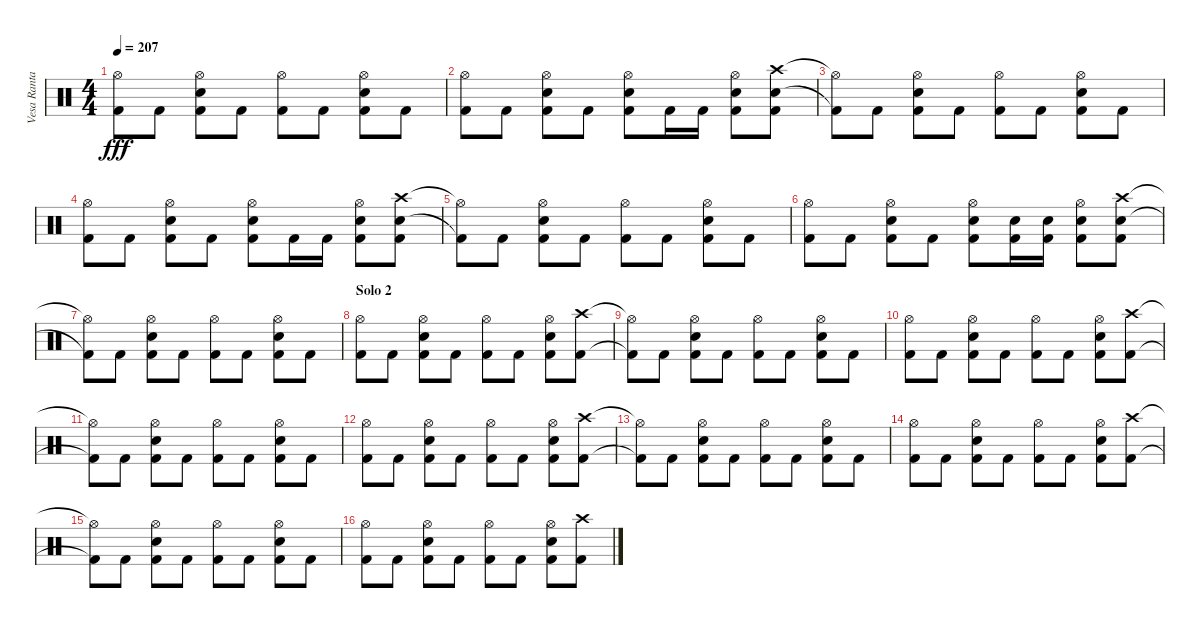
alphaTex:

\track ("Vesa Ranta" "Vesa Ranta") {instrument percussion}
\staff {score}
\articulation defaults
\ts (4 4)
\tempo 207
\clef neutral
\ks c
("Hi-Hat (open)"{t} "Kick (hit) 2"{t}).8{dy fff} "Kick (hit) 2".8 ("Hi-Hat (open)" "Snare (hit) 2" "Kick (hit) 2").8 "Kick (hit) 2".8 ("Hi-Hat (open)" "Kick (hit) 2").8 "Kick (hit) 2".8 ("Hi-Hat (open)" "Snare (hit) 2" "Kick (hit) 2").8 "Kick (hit) 2".8 |
("Hi-Hat (open)" "Kick (hit) 2").8 "Kick (hit) 2".8 ("Hi-Hat (open)" "Snare (hit) 2" "Kick (hit) 2").8 "Kick (hit) 2".8 ("Hi-Hat (open)" "Snare (hit) 2" "Kick (hit) 2").8 "Kick (hit) 2".16 "Kick (hit) 2".16 ("Hi-Hat (open)" "Snare (hit) 2" "Kick (hit) 2").8 ("Crash high (hit)" "Snare (hit) 2" "Kick (hit) 2").8 |
("Hi-Hat (open)"{t} "Kick (hit) 2"{t}).8 "Kick (hit) 2".8 ("Hi-Hat (open)" "Snare (hit) 2" "Kick (hit) 2").8 "Kick (hit) 2".8 ("Hi-Hat (open)" "Kick (hit) 2").8 "Kick (hit) 2".8 ("Hi-Hat (open)" "Snare (hit) 2" "Kick (hit) 2").8 "Kick (hit) 2".8 |
("Hi-Hat (open)" "Kick (hit) 2").8 "Kick (hit) 2".8 ("Hi-Hat (open)" "Snare (hit) 2" "Kick (hit) 2").8 "Kick (hit) 2".8 ("Hi-Hat (open)" "Snare (hit) 2" "Kick (hit) 2").8 "Kick (hit) 2".16 "Kick (hit) 2".16 ("Hi-Hat (open)" "Snare (hit) 2" "Kick (hit) 2").8 ("Crash high (hit)" "Snare (hit) 2" "Kick (hit) 2").8 |
("Hi-Hat (open)"{t} "Kick (hit) 2"{t}).8 "Kick (hit) 2".8 ("Hi-Hat (open)" "Snare (hit) 2" "Kick (hit) 2").8 "Kick (hit) 2".8 ("Hi-Hat (open)" "Kick (hit) 2").8 "Kick (hit) 2".8 ("Hi-Hat (open)" "Snare (hit) 2" "Kick (hit) 2").8 "Kick (hit) 2".8 |
("Hi-Hat (open)" "Kick (hit) 2").8 "Kick (hit) 2".8 ("Hi-Hat (open)" "Snare (hit) 2" "Kick (hit) 2").8 "Kick (hit) 2".8 ("Hi-Hat (open)" "Snare (hit) 2" "Kick (hit) 2").8 ("Snare (hit) 2" "Kick (hit) 2").16 ("Snare (hit) 2" "Kick (hit) 2").16 ("Hi-Hat (open)" "Snare (hit) 2" "Kick (hit) 2").8 ("Crash high (hit)" "Snare (hit) 2" "Kick (hit) 2").8 |
("Hi-Hat (open)"{t} "Kick (hit) 2"{t}).8 "Kick (hit) 2".8 ("Hi-Hat (open)" "Snare (hit) 2" "Kick (hit) 2").8 "Kick (hit) 2".8 ("Hi-Hat (open)" "Kick (hit) 2").8 "Kick (hit) 2".8 ("Hi-Hat (open)" "Snare (hit) 2" "Kick (hit) 2").8 "Kick (hit) 2".8 |
\section ("" "Solo 2")
("Hi-Hat (open)" "Kick (hit) 2").8 "Kick (hit) 2".8 ("Hi-Hat (open)" "Snare (hit) 2" "Kick (hit) 2").8 "Kick (hit) 2".8 ("Hi-Hat (open)" "Kick (hit) 2").8 "Kick (hit) 2".8 ("Hi-Hat (open)" "Snare (hit) 2" "Kick (hit) 2").8 ("Crash high (hit)" "Kick (hit) 2").8 |
("Hi-Hat (open)"{t} "Kick (hit) 2"{t}).8 "Kick (hit) 2".8 ("Hi-Hat (open)" "Snare (hit) 2" "Kick (hit) 2").8 "Kick (hit) 2".8 ("Hi-Hat (open)" "Kick (hit) 2").8 "Kick (hit) 2".8 ("Hi-Hat (open)" "Snare (hit) 2" "Kick (hit) 2").8 "Kick (hit) 2".8 |
("Hi-Hat (open)" "Kick (hit) 2").8 "Kick (hit) 2".8 ("Hi-Hat (open)" "Snare (hit) 2" "Kick (hit) 2").8 "Kick (hit) 2".8 ("Hi-Hat (open)" "Kick (hit) 2").8 "Kick (hit) 2".8 ("Hi-Hat (open)" "Snare (hit) 2" "Kick (hit) 2").8 ("Crash high (hit)" "Kick (hit) 2").8 |
("Hi-Hat (open)"{t} "Kick (hit) 2"{t}).8 "Kick (hit) 2".8 ("Hi-Hat (open)" "Snare (hit) 2" "Kick (hit) 2").8 "Kick (hit) 2".8 ("Hi-Hat (open)" "Kick (hit) 2").8 "Kick (hit) 2".8 ("Hi-Hat (open)" "Snare (hit) 2" "Kick (hit) 2").8 "Kick (hit) 2".8 |
("Hi-Hat (open)" "Kick (hit) 2").8 "Kick (hit) 2".8 ("Hi-Hat (open)" "Snare (hit) 2" "Kick (hit) 2").8 "Kick (hit) 2".8 ("Hi-Hat (open)" "Kick (hit) 2").8 "Kick (hit) 2".8 ("Hi-Hat (open)" "Snare (hit) 2" "Kick (hit) 2").8 ("Crash high (hit)" "Kick (hit) 2").8 |
("Hi-Hat (open)"{t} "Kick (hit) 2"{t}).8 "Kick (hit) 2".8 ("Hi-Hat (open)" "Snare (hit) 2" "Kick (hit) 2").8 "Kick (hit) 2".8 ("Hi-Hat (open)" "Kick (hit) 2").8 "Kick (hit) 2".8 ("Hi-Hat (open)" "Snare (hit) 2" "Kick (hit) 2").8 "Kick (hit) 2".8 |
("Hi-Hat (open)" "Kick (hit) 2").8 "Kick (hit) 2".8 ("Hi-Hat (open)" "Snare (hit) 2" "Kick (hit) 2").8 "Kick (hit) 2".8 ("Hi-Hat (open)" "Kick (hit) 2").8 "Kick (hit) 2".8 ("Hi-Hat (open)" "Snare (hit) 2" "Kick (hit) 2").8 ("Crash high (hit)" "Kick (hit) 2").8 |
("Hi-Hat (open)"{t} "Kick (hit) 2"{t}).8 "Kick (hit) 2".8 ("Hi-Hat (open)" "Snare (hit) 2" "Kick (hit) 2").8 "Kick (hit) 2".8 ("Hi-Hat (open)" "Kick (hit) 2").8 "Kick (hit) 2".8 ("Hi-Hat (open)" "Snare (hit) 2" "Kick (hit) 2").8 "Kick (hit) 2".8 |
("Hi-Hat (open)" "Kick (hit) 2").8 "Kick (hit) 2".8 ("Hi-Hat (open)" "Snare (hit) 2" "Kick (hit) 2").8 "Kick (hit) 2".8 ("Hi-Hat (open)" "Kick (hit) 2").8 "Kick (hit) 2".8 ("Hi-Hat (open)" "Snare (hit) 2" "Kick (hit) 2").8 ("Crash high (hit)" "Kick (hit) 2").8
